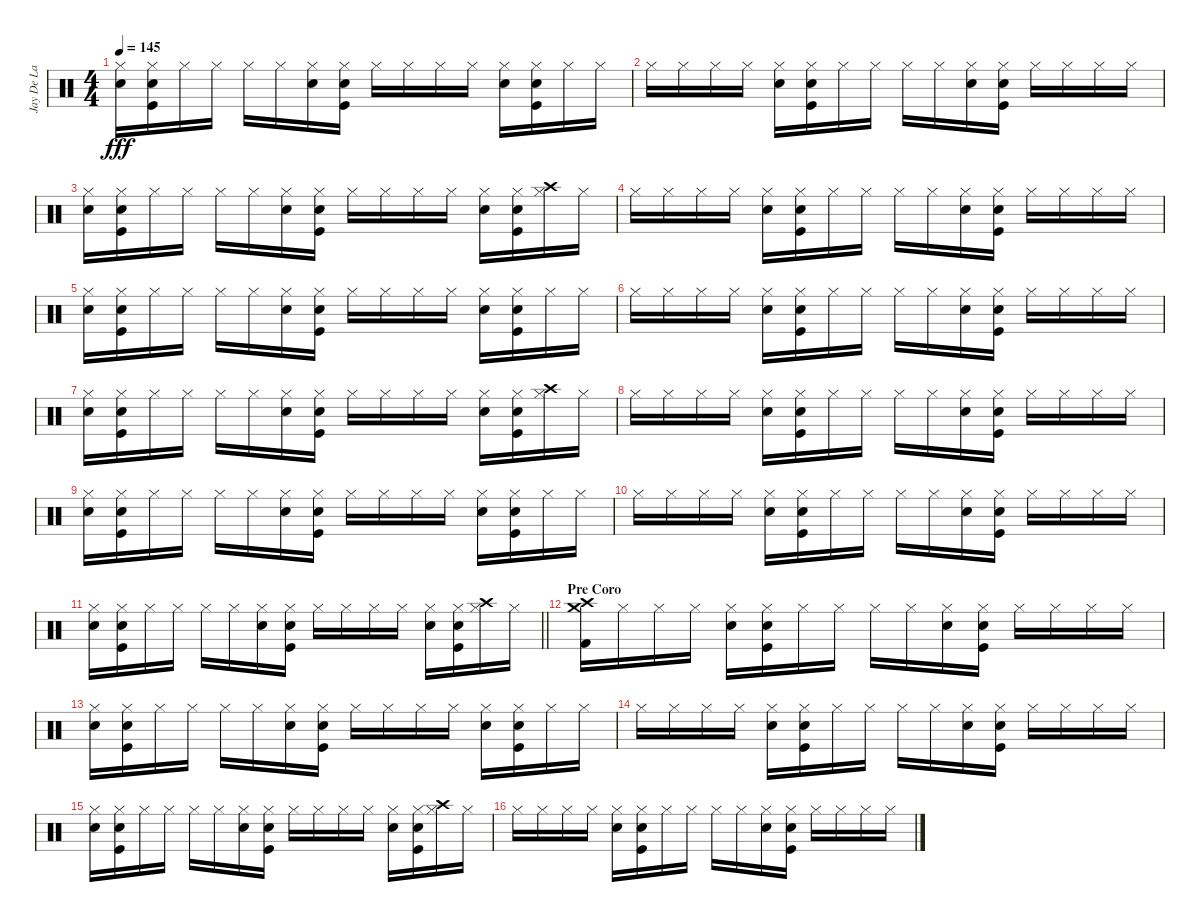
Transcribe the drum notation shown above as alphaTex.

\track ("Jay De La Cueva o C. G." "Jay De La ") {instrument percussion}
\staff {score}
\articulation defaults
\ts (4 4)
\tempo 145
\clef neutral
\ks c
("Snare (hit) 2" "Hi-Hat (closed)").16{dy fff} ("Kick (hit)" "Snare (hit) 2" "Hi-Hat (closed)").16 "Hi-Hat (closed)".16 "Hi-Hat (closed)".16 "Hi-Hat (closed)".16 "Hi-Hat (closed)".16 ("Snare (hit) 2" "Hi-Hat (closed)").16 ("Kick (hit)" "Snare (hit) 2" "Hi-Hat (closed)").16 "Hi-Hat (closed)".16 "Hi-Hat (closed)".16 "Hi-Hat (closed)".16 "Hi-Hat (closed)".16 ("Snare (hit) 2" "Hi-Hat (closed)").16 ("Kick (hit)" "Snare (hit) 2" "Hi-Hat (closed)").16 "Hi-Hat (closed)".16 "Hi-Hat (closed)".16 |
"Hi-Hat (closed)".16 "Hi-Hat (closed)".16 "Hi-Hat (closed)".16 "Hi-Hat (closed)".16 ("Snare (hit) 2" "Hi-Hat (closed)").16 ("Kick (hit)" "Snare (hit) 2" "Hi-Hat (closed)").16 "Hi-Hat (closed)".16 "Hi-Hat (closed)".16 "Hi-Hat (closed)".16 "Hi-Hat (closed)".16 ("Snare (hit) 2" "Hi-Hat (closed)").16 ("Kick (hit)" "Snare (hit) 2" "Hi-Hat (closed)").16 "Hi-Hat (closed)".16 "Hi-Hat (closed)".16 "Hi-Hat (closed)".16 "Hi-Hat (closed)".16 |
("Snare (hit) 2" "Hi-Hat (closed)").16 ("Kick (hit)" "Snare (hit) 2" "Hi-Hat (closed)").16 "Hi-Hat (closed)".16 "Hi-Hat (closed)".16 "Hi-Hat (closed)".16 "Hi-Hat (closed)".16 ("Snare (hit) 2" "Hi-Hat (closed)").16 ("Kick (hit)" "Snare (hit) 2" "Hi-Hat (closed)").16 "Hi-Hat (closed)".16 "Hi-Hat (closed)".16 "Hi-Hat (closed)".16 "Hi-Hat (closed)".16 ("Snare (hit) 2" "Hi-Hat (closed)").16 ("Kick (hit)" "Snare (hit) 2" "Hi-Hat (closed)").16 ("Crash high (hit)" "Hi-Hat (closed)").16 "Hi-Hat (closed)".16 |
"Hi-Hat (closed)".16 "Hi-Hat (closed)".16 "Hi-Hat (closed)".16 "Hi-Hat (closed)".16 ("Snare (hit) 2" "Hi-Hat (closed)").16 ("Kick (hit)" "Snare (hit) 2" "Hi-Hat (closed)").16 "Hi-Hat (closed)".16 "Hi-Hat (closed)".16 "Hi-Hat (closed)".16 "Hi-Hat (closed)".16 ("Snare (hit) 2" "Hi-Hat (closed)").16 ("Kick (hit)" "Snare (hit) 2" "Hi-Hat (closed)").16 "Hi-Hat (closed)".16 "Hi-Hat (closed)".16 "Hi-Hat (closed)".16 "Hi-Hat (closed)".16 |
("Snare (hit) 2" "Hi-Hat (closed)").16 ("Kick (hit)" "Snare (hit) 2" "Hi-Hat (closed)").16 "Hi-Hat (closed)".16 "Hi-Hat (closed)".16 "Hi-Hat (closed)".16 "Hi-Hat (closed)".16 ("Snare (hit) 2" "Hi-Hat (closed)").16 ("Kick (hit)" "Snare (hit) 2" "Hi-Hat (closed)").16 "Hi-Hat (closed)".16 "Hi-Hat (closed)".16 "Hi-Hat (closed)".16 "Hi-Hat (closed)".16 ("Snare (hit) 2" "Hi-Hat (closed)").16 ("Kick (hit)" "Snare (hit) 2" "Hi-Hat (closed)").16 "Hi-Hat (closed)".16 "Hi-Hat (closed)".16 |
"Hi-Hat (closed)".16 "Hi-Hat (closed)".16 "Hi-Hat (closed)".16 "Hi-Hat (closed)".16 ("Snare (hit) 2" "Hi-Hat (closed)").16 ("Kick (hit)" "Snare (hit) 2" "Hi-Hat (closed)").16 "Hi-Hat (closed)".16 "Hi-Hat (closed)".16 "Hi-Hat (closed)".16 "Hi-Hat (closed)".16 ("Snare (hit) 2" "Hi-Hat (closed)").16 ("Kick (hit)" "Snare (hit) 2" "Hi-Hat (closed)").16 "Hi-Hat (closed)".16 "Hi-Hat (closed)".16 "Hi-Hat (closed)".16 "Hi-Hat (closed)".16 |
("Snare (hit) 2" "Hi-Hat (closed)").16 ("Kick (hit)" "Snare (hit) 2" "Hi-Hat (closed)").16 "Hi-Hat (closed)".16 "Hi-Hat (closed)".16 "Hi-Hat (closed)".16 "Hi-Hat (closed)".16 ("Snare (hit) 2" "Hi-Hat (closed)").16 ("Kick (hit)" "Snare (hit) 2" "Hi-Hat (closed)").16 "Hi-Hat (closed)".16 "Hi-Hat (closed)".16 "Hi-Hat (closed)".16 "Hi-Hat (closed)".16 ("Snare (hit) 2" "Hi-Hat (closed)").16 ("Kick (hit)" "Snare (hit) 2" "Hi-Hat (closed)").16 ("Crash high (hit)" "Hi-Hat (closed)").16 "Hi-Hat (closed)".16 |
"Hi-Hat (closed)".16 "Hi-Hat (closed)".16 "Hi-Hat (closed)".16 "Hi-Hat (closed)".16 ("Snare (hit) 2" "Hi-Hat (closed)").16 ("Kick (hit)" "Snare (hit) 2" "Hi-Hat (closed)").16 "Hi-Hat (closed)".16 "Hi-Hat (closed)".16 "Hi-Hat (closed)".16 "Hi-Hat (closed)".16 ("Snare (hit) 2" "Hi-Hat (closed)").16 ("Kick (hit)" "Snare (hit) 2" "Hi-Hat (closed)").16 "Hi-Hat (closed)".16 "Hi-Hat (closed)".16 "Hi-Hat (closed)".16 "Hi-Hat (closed)".16 |
("Snare (hit) 2" "Hi-Hat (closed)").16 ("Kick (hit)" "Snare (hit) 2" "Hi-Hat (closed)").16 "Hi-Hat (closed)".16 "Hi-Hat (closed)".16 "Hi-Hat (closed)".16 "Hi-Hat (closed)".16 ("Snare (hit) 2" "Hi-Hat (closed)").16 ("Kick (hit)" "Snare (hit) 2" "Hi-Hat (closed)").16 "Hi-Hat (closed)".16 "Hi-Hat (closed)".16 "Hi-Hat (closed)".16 "Hi-Hat (closed)".16 ("Snare (hit) 2" "Hi-Hat (closed)").16 ("Kick (hit)" "Snare (hit) 2" "Hi-Hat (closed)").16 "Hi-Hat (closed)".16 "Hi-Hat (closed)".16 |
"Hi-Hat (closed)".16 "Hi-Hat (closed)".16 "Hi-Hat (closed)".16 "Hi-Hat (closed)".16 ("Snare (hit) 2" "Hi-Hat (closed)").16 ("Kick (hit)" "Snare (hit) 2" "Hi-Hat (closed)").16 "Hi-Hat (closed)".16 "Hi-Hat (closed)".16 "Hi-Hat (closed)".16 "Hi-Hat (closed)".16 ("Snare (hit) 2" "Hi-Hat (closed)").16 ("Kick (hit)" "Snare (hit) 2" "Hi-Hat (closed)").16 "Hi-Hat (closed)".16 "Hi-Hat (closed)".16 "Hi-Hat (closed)".16 "Hi-Hat (closed)".16 |
\barLineRight lightlight
("Snare (hit) 2" "Hi-Hat (closed)").16 ("Kick (hit)" "Snare (hit) 2" "Hi-Hat (closed)").16 "Hi-Hat (closed)".16 "Hi-Hat (closed)".16 "Hi-Hat (closed)".16 "Hi-Hat (closed)".16 ("Snare (hit) 2" "Hi-Hat (closed)").16 ("Kick (hit)" "Snare (hit) 2" "Hi-Hat (closed)").16 "Hi-Hat (closed)".16 "Hi-Hat (closed)".16 "Hi-Hat (closed)".16 "Hi-Hat (closed)".16 ("Snare (hit) 2" "Hi-Hat (closed)").16 ("Kick (hit)" "Snare (hit) 2" "Hi-Hat (closed)").16 ("Crash high (hit)" "Hi-Hat (closed)").16 "Hi-Hat (closed)".16 |
\section ("" "Pre Coro")
("Crash high (hit)" "Crash medium (hit)" "Kick (hit) 2").16 "Hi-Hat (closed)".16 "Hi-Hat (closed)".16 "Hi-Hat (closed)".16 ("Snare (hit) 2" "Hi-Hat (closed)").16 ("Kick (hit)" "Snare (hit) 2" "Hi-Hat (closed)").16 "Hi-Hat (closed)".16 "Hi-Hat (closed)".16 "Hi-Hat (closed)".16 "Hi-Hat (closed)".16 ("Snare (hit) 2" "Hi-Hat (closed)").16 ("Kick (hit)" "Snare (hit) 2" "Hi-Hat (closed)").16 "Hi-Hat (closed)".16 "Hi-Hat (closed)".16 "Hi-Hat (closed)".16 "Hi-Hat (closed)".16 |
("Snare (hit) 2" "Hi-Hat (closed)").16 ("Kick (hit)" "Snare (hit) 2" "Hi-Hat (closed)").16 "Hi-Hat (closed)".16 "Hi-Hat (closed)".16 "Hi-Hat (closed)".16 "Hi-Hat (closed)".16 ("Snare (hit) 2" "Hi-Hat (closed)").16 ("Kick (hit)" "Snare (hit) 2" "Hi-Hat (closed)").16 "Hi-Hat (closed)".16 "Hi-Hat (closed)".16 "Hi-Hat (closed)".16 "Hi-Hat (closed)".16 ("Snare (hit) 2" "Hi-Hat (closed)").16 ("Kick (hit)" "Snare (hit) 2" "Hi-Hat (closed)").16 "Hi-Hat (closed)".16 "Hi-Hat (closed)".16 |
"Hi-Hat (closed)".16 "Hi-Hat (closed)".16 "Hi-Hat (closed)".16 "Hi-Hat (closed)".16 ("Snare (hit) 2" "Hi-Hat (closed)").16 ("Kick (hit)" "Snare (hit) 2" "Hi-Hat (closed)").16 "Hi-Hat (closed)".16 "Hi-Hat (closed)".16 "Hi-Hat (closed)".16 "Hi-Hat (closed)".16 ("Snare (hit) 2" "Hi-Hat (closed)").16 ("Kick (hit)" "Snare (hit) 2" "Hi-Hat (closed)").16 "Hi-Hat (closed)".16 "Hi-Hat (closed)".16 "Hi-Hat (closed)".16 "Hi-Hat (closed)".16 |
("Snare (hit) 2" "Hi-Hat (closed)").16 ("Kick (hit)" "Snare (hit) 2" "Hi-Hat (closed)").16 "Hi-Hat (closed)".16 "Hi-Hat (closed)".16 "Hi-Hat (closed)".16 "Hi-Hat (closed)".16 ("Snare (hit) 2" "Hi-Hat (closed)").16 ("Kick (hit)" "Snare (hit) 2" "Hi-Hat (closed)").16 "Hi-Hat (closed)".16 "Hi-Hat (closed)".16 "Hi-Hat (closed)".16 "Hi-Hat (closed)".16 ("Snare (hit) 2" "Hi-Hat (closed)").16 ("Kick (hit)" "Snare (hit) 2" "Hi-Hat (closed)").16 ("Crash high (hit)" "Hi-Hat (closed)").16 "Hi-Hat (closed)".16 |
"Hi-Hat (closed)".16 "Hi-Hat (closed)".16 "Hi-Hat (closed)".16 "Hi-Hat (closed)".16 ("Snare (hit) 2" "Hi-Hat (closed)").16 ("Kick (hit)" "Snare (hit) 2" "Hi-Hat (closed)").16 "Hi-Hat (closed)".16 "Hi-Hat (closed)".16 "Hi-Hat (closed)".16 "Hi-Hat (closed)".16 ("Snare (hit) 2" "Hi-Hat (closed)").16 ("Kick (hit)" "Snare (hit) 2" "Hi-Hat (closed)").16 "Hi-Hat (closed)".16 "Hi-Hat (closed)".16 "Hi-Hat (closed)".16 "Hi-Hat (closed)".16
